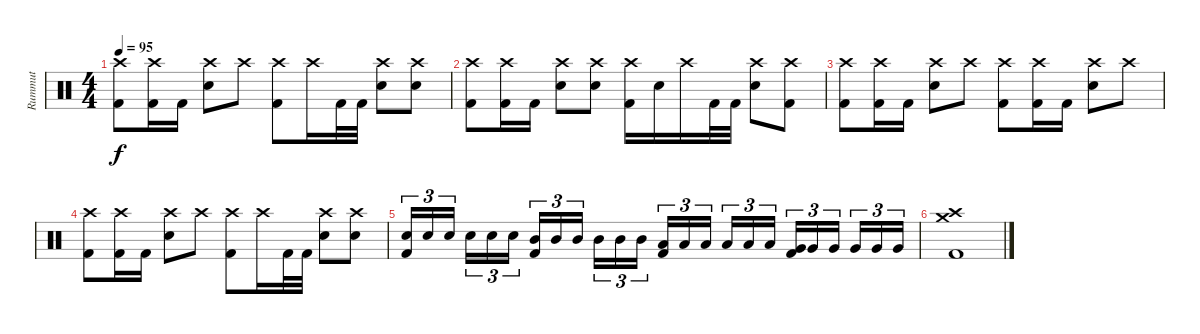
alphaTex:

\track ("Rummut" "Rummut") {instrument percussion}
\staff {score}
\articulation defaults
\ts (4 4)
\tempo 95
\clef neutral
\ks c
("Crash high (hit)" "Kick (hit) 2").8{dy f} ("Crash high (hit)" "Kick (hit) 2").16 "Kick (hit) 2".16 ("Crash high (hit)" "Snare (hit) 2").8 "Crash high (hit)".8 ("Crash high (hit)" "Kick (hit) 2").8 "Crash high (hit)".16 "Kick (hit) 2".32 "Kick (hit) 2".32 ("Crash high (hit)" "Snare (hit) 2").8 ("Crash high (hit)" "Snare (hit) 2").8 |
("Crash high (hit)" "Kick (hit) 2").8 ("Crash high (hit)" "Kick (hit) 2").16 "Kick (hit) 2".16 ("Crash high (hit)" "Snare (hit) 2").8 ("Crash high (hit)" "Snare (hit) 2").8 ("Crash high (hit)" "Kick (hit) 2").16 "Snare (hit) 2".16 "Crash high (hit)".16 "Kick (hit) 2".32 "Kick (hit) 2".32 ("Crash high (hit)" "Snare (hit) 2").8 ("Crash high (hit)" "Kick (hit) 2").8 |
("Crash high (hit)" "Kick (hit) 2").8 ("Crash high (hit)" "Kick (hit) 2").16 "Kick (hit) 2".16 ("Crash high (hit)" "Snare (hit) 2").8 "Crash high (hit)".8 ("Crash high (hit)" "Kick (hit) 2").8 ("Crash high (hit)" "Kick (hit) 2").16 "Kick (hit) 2".16 ("Crash high (hit)" "Snare (hit) 2").8 "Crash high (hit)".8 |
("Crash high (hit)" "Kick (hit) 2").8 ("Crash high (hit)" "Kick (hit) 2").16 "Kick (hit) 2".16 ("Crash high (hit)" "Snare (hit) 2").8 "Crash high (hit)".8 ("Crash high (hit)" "Kick (hit) 2").8 "Crash high (hit)".16 "Kick (hit) 2".32 "Kick (hit) 2".32 ("Crash high (hit)" "Snare (hit) 2").8 ("Crash high (hit)" "Snare (hit) 2").8 |
("Snare (hit) 2" "Kick (hit) 2").16{tu (3 2)} "Snare (hit) 2".16{tu (3 2)} "Snare (hit) 2".16{tu (3 2) beam splitsecondary} "Snare (hit) 2".16{tu (3 2)} "Snare (hit) 2".16{tu (3 2)} "Snare (hit) 2".16{tu (3 2)} ("Mid Tom (hit)" "Kick (hit) 2").16{tu (3 2)} "Mid Tom (hit)".16{tu (3 2)} "Mid Tom (hit)".16{tu (3 2) beam splitsecondary} "Mid Tom (hit)".16{tu (3 2)} "Mid Tom (hit)".16{tu (3 2)} "Mid Tom (hit)".16{tu (3 2)} ("Low Tom (hit)" "Kick (hit) 2").16{tu (3 2)} "Low Tom (hit)".16{tu (3 2)} "Low Tom (hit)".16{tu (3 2) beam splitsecondary} "Low Tom (hit)".16{tu (3 2)} "Low Tom (hit)".16{tu (3 2)} "Low Tom (hit)".16{tu (3 2)} ("Very Low Tom (hit)" "Kick (hit) 2").16{tu (3 2)} "Very Low Tom (hit)".16{tu (3 2)} "Very Low Tom (hit)".16{tu (3 2) beam splitsecondary} "Very Low Tom (hit)".16{tu (3 2)} "Very Low Tom (hit)".16{tu (3 2)} "Very Low Tom (hit)".16{tu (3 2)} |
("Crash high (hit)" "Crash medium (hit)" "Kick (hit) 2").1
